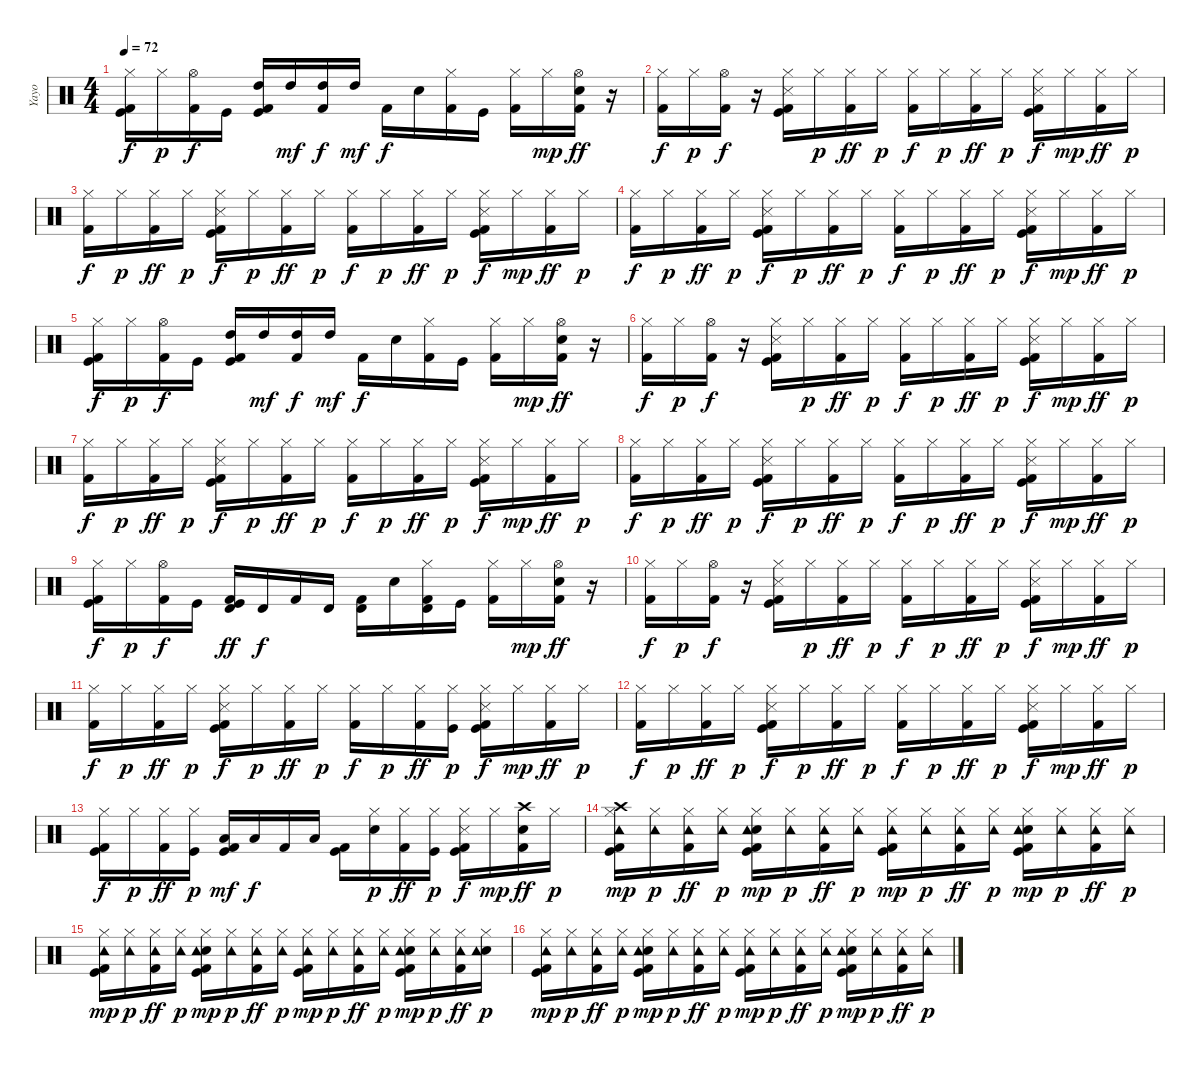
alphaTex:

\track ("Yayo" "Yayo") {instrument percussion}
\staff {score}
\articulation defaults
\ts (4 4)
\tempo 72
\clef neutral
\ks c
("Kick (hit)" "Hi-Hat (closed)" "Kick (hit) 2").16{dy f} "Hi-Hat (closed)".16{dy p} ("Hi-Hat (open)" "Kick (hit) 2").16{dy f} "Kick (hit)".16 ("Kick (hit)" "High Tom (hit)" "Kick (hit) 2").16 "High Tom (hit)".16{dy mf} ("High Tom (hit)" "Kick (hit) 2").16{dy f} "High Tom (hit)".16{dy mf} "Kick (hit) 2".16{dy f} "Snare (hit) 2".16 ("Hi-Hat (closed)" "Kick (hit) 2").16 "Kick (hit)".16 ("Hi-Hat (closed)" "Kick (hit) 2").16 "Hi-Hat (closed)".16{dy mp} ("Snare (hit) 2" "Hi-Hat (open)" "Kick (hit) 2").16{dy ff} r.16 |
("Hi-Hat (closed)" "Kick (hit) 2").16{dy f} "Hi-Hat (closed)".16{dy p} ("Hi-Hat (open)" "Kick (hit) 2").16{dy f} r.16 ("Kick (hit)" "Hi-Hat (closed)" "Snare (side stick) 3" "Kick (hit) 2").16 "Hi-Hat (closed)".16{dy p} ("Hi-Hat (closed)" "Kick (hit) 2").16{dy ff} "Hi-Hat (closed)".16{dy p} ("Hi-Hat (closed)" "Kick (hit) 2").16{dy f} "Hi-Hat (closed)".16{dy p} ("Hi-Hat (closed)" "Kick (hit) 2").16{dy ff} "Hi-Hat (closed)".16{dy p} ("Kick (hit)" "Hi-Hat (closed)" "Snare (side stick) 3" "Kick (hit) 2").16{dy f} "Hi-Hat (closed)".16{dy mp} ("Hi-Hat (closed)" "Kick (hit) 2").16{dy ff} "Hi-Hat (closed)".16{dy p} |
("Hi-Hat (closed)" "Kick (hit) 2").16{dy f} "Hi-Hat (closed)".16{dy p} ("Hi-Hat (closed)" "Kick (hit) 2").16{dy ff} "Hi-Hat (closed)".16{dy p} ("Kick (hit)" "Hi-Hat (closed)" "Snare (side stick) 3" "Kick (hit) 2").16{dy f} "Hi-Hat (closed)".16{dy p} ("Hi-Hat (closed)" "Kick (hit) 2").16{dy ff} "Hi-Hat (closed)".16{dy p} ("Hi-Hat (closed)" "Kick (hit) 2").16{dy f} "Hi-Hat (closed)".16{dy p} ("Hi-Hat (closed)" "Kick (hit) 2").16{dy ff} "Hi-Hat (closed)".16{dy p} ("Kick (hit)" "Hi-Hat (closed)" "Snare (side stick) 3" "Kick (hit) 2").16{dy f} "Hi-Hat (closed)".16{dy mp} ("Hi-Hat (closed)" "Kick (hit) 2").16{dy ff} "Hi-Hat (closed)".16{dy p} |
("Hi-Hat (closed)" "Kick (hit) 2").16{dy f} "Hi-Hat (closed)".16{dy p} ("Hi-Hat (closed)" "Kick (hit) 2").16{dy ff} "Hi-Hat (closed)".16{dy p} ("Kick (hit)" "Hi-Hat (closed)" "Snare (side stick) 3" "Kick (hit) 2").16{dy f} "Hi-Hat (closed)".16{dy p} ("Hi-Hat (closed)" "Kick (hit) 2").16{dy ff} "Hi-Hat (closed)".16{dy p} ("Hi-Hat (closed)" "Kick (hit) 2").16{dy f} "Hi-Hat (closed)".16{dy p} ("Hi-Hat (closed)" "Kick (hit) 2").16{dy ff} "Hi-Hat (closed)".16{dy p} ("Kick (hit)" "Hi-Hat (closed)" "Snare (side stick) 3" "Kick (hit) 2").16{dy f} "Hi-Hat (closed)".16{dy mp} ("Hi-Hat (closed)" "Kick (hit) 2").16{dy ff} "Hi-Hat (closed)".16{dy p} |
("Kick (hit)" "Hi-Hat (closed)" "Kick (hit) 2").16{dy f} "Hi-Hat (closed)".16{dy p} ("Hi-Hat (open)" "Kick (hit) 2").16{dy f} "Kick (hit)".16 ("Kick (hit)" "High Tom (hit)" "Kick (hit) 2").16 "High Tom (hit)".16{dy mf} ("High Tom (hit)" "Kick (hit) 2").16{dy f} "High Tom (hit)".16{dy mf} "Kick (hit) 2".16{dy f} "Snare (hit) 2".16 ("Hi-Hat (closed)" "Kick (hit) 2").16 "Kick (hit)".16 ("Hi-Hat (closed)" "Kick (hit) 2").16 "Hi-Hat (closed)".16{dy mp} ("Snare (hit) 2" "Hi-Hat (open)" "Kick (hit) 2").16{dy ff} r.16 |
("Hi-Hat (closed)" "Kick (hit) 2").16{dy f} "Hi-Hat (closed)".16{dy p} ("Hi-Hat (open)" "Kick (hit) 2").16{dy f} r.16 ("Kick (hit)" "Hi-Hat (closed)" "Snare (side stick) 3" "Kick (hit) 2").16 "Hi-Hat (closed)".16{dy p} ("Hi-Hat (closed)" "Kick (hit) 2").16{dy ff} "Hi-Hat (closed)".16{dy p} ("Hi-Hat (closed)" "Kick (hit) 2").16{dy f} "Hi-Hat (closed)".16{dy p} ("Hi-Hat (closed)" "Kick (hit) 2").16{dy ff} "Hi-Hat (closed)".16{dy p} ("Kick (hit)" "Hi-Hat (closed)" "Snare (side stick) 3" "Kick (hit) 2").16{dy f} "Hi-Hat (closed)".16{dy mp} ("Hi-Hat (closed)" "Kick (hit) 2").16{dy ff} "Hi-Hat (closed)".16{dy p} |
("Hi-Hat (closed)" "Kick (hit) 2").16{dy f} "Hi-Hat (closed)".16{dy p} ("Hi-Hat (closed)" "Kick (hit) 2").16{dy ff} "Hi-Hat (closed)".16{dy p} ("Kick (hit)" "Hi-Hat (closed)" "Snare (side stick) 3" "Kick (hit) 2").16{dy f} "Hi-Hat (closed)".16{dy p} ("Hi-Hat (closed)" "Kick (hit) 2").16{dy ff} "Hi-Hat (closed)".16{dy p} ("Hi-Hat (closed)" "Kick (hit) 2").16{dy f} "Hi-Hat (closed)".16{dy p} ("Hi-Hat (closed)" "Kick (hit) 2").16{dy ff} "Hi-Hat (closed)".16{dy p} ("Kick (hit)" "Hi-Hat (closed)" "Snare (side stick) 3" "Kick (hit) 2").16{dy f} "Hi-Hat (closed)".16{dy mp} ("Hi-Hat (closed)" "Kick (hit) 2").16{dy ff} "Hi-Hat (closed)".16{dy p} |
("Hi-Hat (closed)" "Kick (hit) 2").16{dy f} "Hi-Hat (closed)".16{dy p} ("Hi-Hat (closed)" "Kick (hit) 2").16{dy ff} "Hi-Hat (closed)".16{dy p} ("Kick (hit)" "Hi-Hat (closed)" "Snare (side stick) 3" "Kick (hit) 2").16{dy f} "Hi-Hat (closed)".16{dy p} ("Hi-Hat (closed)" "Kick (hit) 2").16{dy ff} "Hi-Hat (closed)".16{dy p} ("Hi-Hat (closed)" "Kick (hit) 2").16{dy f} "Hi-Hat (closed)".16{dy p} ("Hi-Hat (closed)" "Kick (hit) 2").16{dy ff} "Hi-Hat (closed)".16{dy p} ("Kick (hit)" "Hi-Hat (closed)" "Snare (side stick) 3" "Kick (hit) 2").16{dy f} "Hi-Hat (closed)".16{dy mp} ("Hi-Hat (closed)" "Kick (hit) 2").16{dy ff} "Hi-Hat (closed)".16{dy p} |
("Kick (hit)" "Hi-Hat (closed)" "Kick (hit) 2").16{dy f} "Hi-Hat (closed)".16{dy p} ("Hi-Hat (open)" "Kick (hit) 2").16{dy f} "Kick (hit)".16 ("Kick (hit)" "Timbale high (hit)" "Kick (hit) 2").16{dy ff} "Timbale high (hit)".16{dy f} "Kick (hit) 2".16 "Timbale high (hit)".16 ("Timbale high (hit)" "Kick (hit) 2").16 "Snare (hit) 2".16 ("Hi-Hat (closed)" "Timbale high (hit)" "Kick (hit) 2").16 "Kick (hit)".16 ("Hi-Hat (closed)" "Kick (hit) 2").16 "Hi-Hat (closed)".16{dy mp} ("Snare (hit) 2" "Hi-Hat (open)" "Kick (hit) 2").16{dy ff} r.16 |
("Hi-Hat (closed)" "Kick (hit) 2").16{dy f} "Hi-Hat (closed)".16{dy p} ("Hi-Hat (open)" "Kick (hit) 2").16{dy f} r.16 ("Kick (hit)" "Hi-Hat (closed)" "Snare (side stick) 3" "Kick (hit) 2").16 "Hi-Hat (closed)".16{dy p} ("Hi-Hat (closed)" "Kick (hit) 2").16{dy ff} "Hi-Hat (closed)".16{dy p} ("Hi-Hat (closed)" "Kick (hit) 2").16{dy f} "Hi-Hat (closed)".16{dy p} ("Hi-Hat (closed)" "Kick (hit) 2").16{dy ff} "Hi-Hat (closed)".16{dy p} ("Kick (hit)" "Hi-Hat (closed)" "Snare (side stick) 3" "Kick (hit) 2").16{dy f} "Hi-Hat (closed)".16{dy mp} ("Hi-Hat (closed)" "Kick (hit) 2").16{dy ff} "Hi-Hat (closed)".16{dy p} |
("Hi-Hat (closed)" "Kick (hit) 2").16{dy f} "Hi-Hat (closed)".16{dy p} ("Hi-Hat (closed)" "Kick (hit) 2").16{dy ff} "Hi-Hat (closed)".16{dy p} ("Kick (hit)" "Hi-Hat (closed)" "Snare (side stick) 3" "Kick (hit) 2").16{dy f} "Hi-Hat (closed)".16{dy p} ("Hi-Hat (closed)" "Kick (hit) 2").16{dy ff} "Hi-Hat (closed)".16{dy p} ("Hi-Hat (closed)" "Kick (hit) 2").16{dy f} "Hi-Hat (closed)".16{dy p} ("Hi-Hat (closed)" "Kick (hit) 2").16{dy ff} ("Kick (hit)" "Hi-Hat (closed)").16{dy p} ("Kick (hit)" "Hi-Hat (closed)" "Snare (side stick) 3" "Kick (hit) 2").16{dy f} "Hi-Hat (closed)".16{dy mp} ("Hi-Hat (closed)" "Kick (hit) 2").16{dy ff} "Hi-Hat (closed)".16{dy p} |
("Hi-Hat (closed)" "Kick (hit) 2").16{dy f} "Hi-Hat (closed)".16{dy p} ("Hi-Hat (closed)" "Kick (hit) 2").16{dy ff} "Hi-Hat (closed)".16{dy p} ("Kick (hit)" "Hi-Hat (closed)" "Snare (side stick) 3" "Kick (hit) 2").16{dy f} "Hi-Hat (closed)".16{dy p} ("Hi-Hat (closed)" "Kick (hit) 2").16{dy ff} "Hi-Hat (closed)".16{dy p} ("Hi-Hat (closed)" "Kick (hit) 2").16{dy f} "Hi-Hat (closed)".16{dy p} ("Hi-Hat (closed)" "Kick (hit) 2").16{dy ff} "Hi-Hat (closed)".16{dy p} ("Kick (hit)" "Hi-Hat (closed)" "Snare (side stick) 3" "Kick (hit) 2").16{dy f} "Hi-Hat (closed)".16{dy mp} ("Hi-Hat (closed)" "Kick (hit) 2").16{dy ff} "Hi-Hat (closed)".16{dy p} |
("Kick (hit)" "Hi-Hat (closed)" "Kick (hit) 2").16{dy f} "Hi-Hat (closed)".16{dy p} ("Hi-Hat (closed)" "Kick (hit) 2").16{dy ff} ("Kick (hit)" "Hi-Hat (closed)").16{dy p} ("Kick (hit)" "Low Floor Tom (hit)" "Kick (hit) 2").16{dy mf} "Low Floor Tom (hit)".16{dy f} "Kick (hit) 2".16 "Low Floor Tom (hit)".16 ("Kick (hit)" "Kick (hit) 2").16 ("Snare (hit) 2" "Hi-Hat (closed)").16{dy p} ("Hi-Hat (closed)" "Kick (hit) 2").16{dy ff} ("Kick (hit)" "Hi-Hat (closed)").16{dy p} ("Kick (hit)" "Hi-Hat (closed)" "Snare (side stick) 3" "Kick (hit) 2").16{dy f} "Hi-Hat (closed)".16{dy mp} ("Snare (hit) 2" "Crash high (hit)" "Kick (hit) 2").16{dy ff} "Hi-Hat (closed)".16{dy p} |
("Kick (hit)" "Hi-Hat (closed)" "Crash high (hit)" "Tambourine (hit)" "Kick (hit) 2").16{dy mp} ("Hi-Hat (closed)" "Tambourine (hit)").16{dy p} ("Hi-Hat (closed)" "Tambourine (hit)" "Kick (hit) 2").16{dy ff} ("Hi-Hat (closed)" "Tambourine (hit)").16{dy p} ("Kick (hit)" "Snare (hit) 2" "Hi-Hat (closed)" "Tambourine (hit)" "Kick (hit) 2").16{dy mp} ("Hi-Hat (closed)" "Tambourine (hit)").16{dy p} ("Hi-Hat (closed)" "Tambourine (hit)" "Kick (hit) 2").16{dy ff} ("Hi-Hat (closed)" "Tambourine (hit)").16{dy p} ("Kick (hit)" "Hi-Hat (closed)" "Tambourine (hit)" "Kick (hit) 2").16{dy mp} ("Hi-Hat (closed)" "Tambourine (hit)").16{dy p} ("Hi-Hat (closed)" "Tambourine (hit)" "Kick (hit) 2").16{dy ff} ("Hi-Hat (closed)" "Tambourine (hit)").16{dy p} ("Kick (hit)" "Snare (hit) 2" "Hi-Hat (closed)" "Tambourine (hit)" "Kick (hit) 2").16{dy mp} ("Hi-Hat (closed)" "Tambourine (hit)").16{dy p} ("Hi-Hat (closed)" "Tambourine (hit)" "Kick (hit) 2").16{dy ff} ("Hi-Hat (closed)" "Tambourine (hit)").16{dy p} |
("Kick (hit)" "Hi-Hat (closed)" "Tambourine (hit)" "Kick (hit) 2").16{dy mp} ("Hi-Hat (closed)" "Tambourine (hit)").16{dy p} ("Hi-Hat (closed)" "Tambourine (hit)" "Kick (hit) 2").16{dy ff} ("Hi-Hat (closed)" "Tambourine (hit)").16{dy p} ("Kick (hit)" "Snare (hit) 2" "Hi-Hat (closed)" "Tambourine (hit)" "Kick (hit) 2").16{dy mp} ("Hi-Hat (closed)" "Tambourine (hit)").16{dy p} ("Hi-Hat (closed)" "Tambourine (hit)" "Kick (hit) 2").16{dy ff} ("Hi-Hat (closed)" "Tambourine (hit)").16{dy p} ("Kick (hit)" "Hi-Hat (closed)" "Tambourine (hit)" "Kick (hit) 2").16{dy mp} ("Hi-Hat (closed)" "Tambourine (hit)").16{dy p} ("Hi-Hat (closed)" "Tambourine (hit)" "Kick (hit) 2").16{dy ff} ("Hi-Hat (closed)" "Tambourine (hit)").16{dy p} ("Kick (hit)" "Snare (hit) 2" "Hi-Hat (closed)" "Tambourine (hit)" "Kick (hit) 2").16{dy mp} ("Hi-Hat (closed)" "Tambourine (hit)").16{dy p} ("Hi-Hat (closed)" "Tambourine (hit)" "Kick (hit) 2").16{dy ff} ("Snare (hit) 2" "Hi-Hat (closed)" "Tambourine (hit)").16{dy p} |
("Kick (hit)" "Hi-Hat (closed)" "Tambourine (hit)" "Kick (hit) 2").16{dy mp} ("Hi-Hat (closed)" "Tambourine (hit)").16{dy p} ("Hi-Hat (closed)" "Tambourine (hit)" "Kick (hit) 2").16{dy ff} ("Hi-Hat (closed)" "Tambourine (hit)").16{dy p} ("Kick (hit)" "Snare (hit) 2" "Hi-Hat (closed)" "Tambourine (hit)" "Kick (hit) 2").16{dy mp} ("Hi-Hat (closed)" "Tambourine (hit)").16{dy p} ("Hi-Hat (closed)" "Tambourine (hit)" "Kick (hit) 2").16{dy ff} ("Hi-Hat (closed)" "Tambourine (hit)").16{dy p} ("Kick (hit)" "Hi-Hat (closed)" "Tambourine (hit)" "Kick (hit) 2").16{dy mp} ("Hi-Hat (closed)" "Tambourine (hit)").16{dy p} ("Hi-Hat (closed)" "Tambourine (hit)" "Kick (hit) 2").16{dy ff} ("Hi-Hat (closed)" "Tambourine (hit)").16{dy p} ("Kick (hit)" "Snare (hit) 2" "Hi-Hat (closed)" "Tambourine (hit)" "Kick (hit) 2").16{dy mp} ("Hi-Hat (closed)" "Tambourine (hit)").16{dy p} ("Hi-Hat (closed)" "Tambourine (hit)" "Kick (hit) 2").16{dy ff} ("Hi-Hat (closed)" "Tambourine (hit)").16{dy p}
